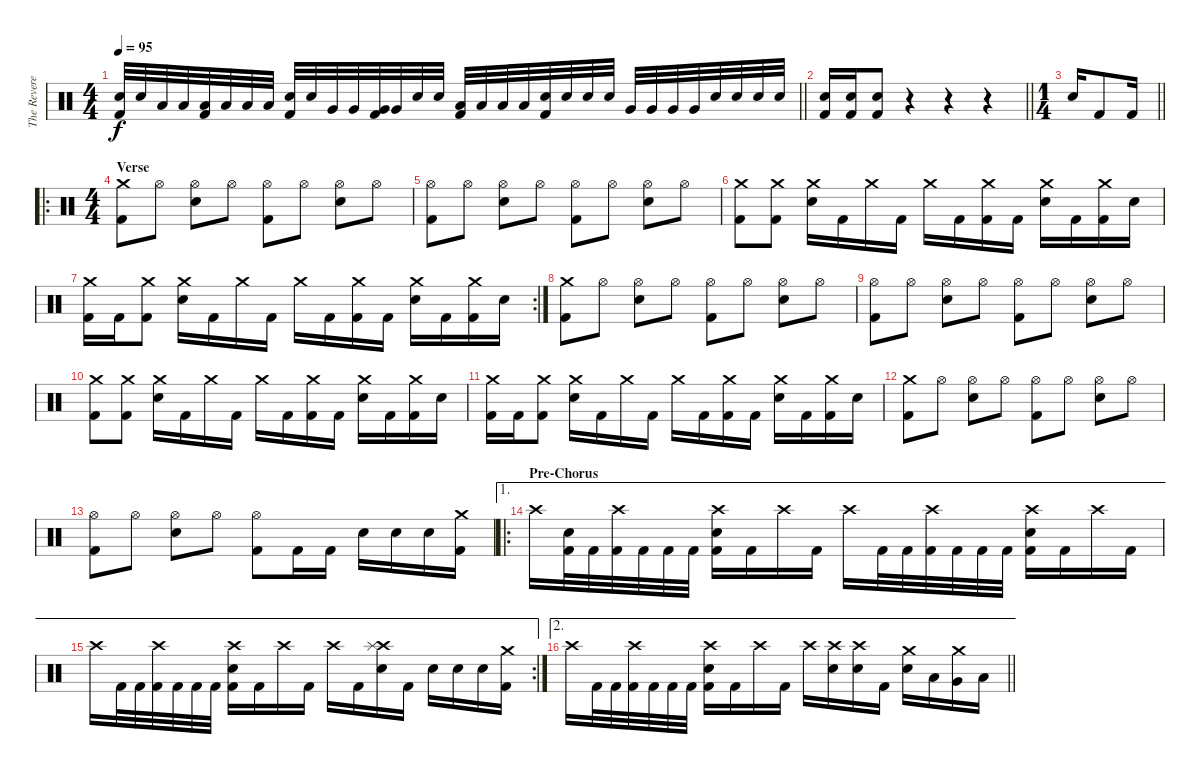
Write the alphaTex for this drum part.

\track ("The Reverend" "The Revere") {instrument percussion}
\staff {score}
\articulation defaults
\ts (4 4)
\tempo 95
\clef neutral
\barLineRight lightlight
\ks c
("Electric Snare (hit)" "Kick (hit) 2").32{dy f} "Electric Snare (hit)".32 "Low Tom (hit)".32 "Low Tom (hit)".32 ("Low Tom (hit)" "Kick (hit) 2").32 "Low Tom (hit)".32 "Low Tom (hit)".32 "Low Tom (hit)".32 ("Electric Snare (hit)" "Kick (hit) 2").32 "Electric Snare (hit)".32 "Very Low Tom (hit)".32 "Very Low Tom (hit)".32 ("Very Low Tom (hit)" "Kick (hit) 2").32 "Very Low Tom (hit)".32 "Electric Snare (hit)".32 "Electric Snare (hit)".32 ("Low Tom (hit)" "Kick (hit) 2").32 "Low Tom (hit)".32 "Low Tom (hit)".32 "Low Tom (hit)".32 ("Electric Snare (hit)" "Kick (hit) 2").32 "Electric Snare (hit)".32 "Electric Snare (hit)".32 "Electric Snare (hit)".32 "Very Low Tom (hit)".32 "Very Low Tom (hit)".32 "Very Low Tom (hit)".32 "Very Low Tom (hit)".32 "Electric Snare (hit)".32 "Electric Snare (hit)".32 "Electric Snare (hit)".32 "Electric Snare (hit)".32 |
\barLineRight lightlight
("Electric Snare (hit)" "Kick (hit) 2").16 ("Electric Snare (hit)" "Kick (hit) 2").16 ("Electric Snare (hit)" "Kick (hit) 2").8 r.4 r.4 r.4 |
\ts (1 4)
\barLineRight lightlight "Electric Snare (hit)".16 "Kick (hit) 2".8 "Kick (hit) 2".16
|
\ro
\ts (4 4)
\section ("" "Verse")
("Crash medium (hit)" "Kick (hit) 2").8 "Hi-Hat (open)".8 ("Hi-Hat (open)" "Electric Snare (hit)").8 "Hi-Hat (open)".8 ("Hi-Hat (open)" "Kick (hit) 2").8 "Hi-Hat (open)".8 ("Hi-Hat (open)" "Electric Snare (hit)").8 "Hi-Hat (open)".8 |
("Hi-Hat (open)" "Kick (hit) 2").8 "Hi-Hat (open)".8 ("Hi-Hat (open)" "Electric Snare (hit)").8 "Hi-Hat (open)".8 ("Hi-Hat (open)" "Kick (hit) 2").8 "Hi-Hat (open)".8 ("Hi-Hat (open)" "Electric Snare (hit)").8 "Hi-Hat (open)".8 |
("Crash medium (hit)" "Kick (hit) 2").8 ("Crash medium (hit)" "Kick (hit) 2").8 ("Crash medium (hit)" "Electric Snare (hit)").16 "Kick (hit) 2".16 "Crash medium (hit)".16 "Kick (hit) 2".16 "Crash medium (hit)".16 "Kick (hit) 2".16 ("Crash medium (hit)" "Kick (hit) 2").16 "Kick (hit) 2".16 ("Crash medium (hit)" "Electric Snare (hit)").16 "Kick (hit) 2".16 ("Crash medium (hit)" "Kick (hit) 2").16 "Electric Snare (hit)".16 |
\rc 2
("Crash medium (hit)" "Kick (hit) 2").16 "Kick (hit) 2".16 ("Crash medium (hit)" "Kick (hit) 2").8 ("Crash medium (hit)" "Electric Snare (hit)").16 "Kick (hit) 2".16 "Crash medium (hit)".16 "Kick (hit) 2".16 "Crash medium (hit)".16 "Kick (hit) 2".16 ("Crash medium (hit)" "Kick (hit) 2").16 "Kick (hit) 2".16 ("Crash medium (hit)" "Electric Snare (hit)").16 "Kick (hit) 2".16 ("Crash medium (hit)" "Kick (hit) 2").16 "Electric Snare (hit)".16 |
("Crash medium (hit)" "Kick (hit) 2").8 "Hi-Hat (open)".8 ("Hi-Hat (open)" "Electric Snare (hit)").8 "Hi-Hat (open)".8 ("Hi-Hat (open)" "Kick (hit) 2").8 "Hi-Hat (open)".8 ("Hi-Hat (open)" "Electric Snare (hit)").8 "Hi-Hat (open)".8 |
("Hi-Hat (open)" "Kick (hit) 2").8 "Hi-Hat (open)".8 ("Hi-Hat (open)" "Electric Snare (hit)").8 "Hi-Hat (open)".8 ("Hi-Hat (open)" "Kick (hit) 2").8 "Hi-Hat (open)".8 ("Hi-Hat (open)" "Electric Snare (hit)").8 "Hi-Hat (open)".8 |
("Crash medium (hit)" "Kick (hit) 2").8 ("Crash medium (hit)" "Kick (hit) 2").8 ("Crash medium (hit)" "Electric Snare (hit)").16 "Kick (hit) 2".16 "Crash medium (hit)".16 "Kick (hit) 2".16 "Crash medium (hit)".16 "Kick (hit) 2".16 ("Crash medium (hit)" "Kick (hit) 2").16 "Kick (hit) 2".16 ("Crash medium (hit)" "Electric Snare (hit)").16 "Kick (hit) 2".16 ("Crash medium (hit)" "Kick (hit) 2").16 "Electric Snare (hit)".16 |
("Crash medium (hit)" "Kick (hit) 2").16 "Kick (hit) 2".16 ("Crash medium (hit)" "Kick (hit) 2").8 ("Crash medium (hit)" "Electric Snare (hit)").16 "Kick (hit) 2".16 "Crash medium (hit)".16 "Kick (hit) 2".16 "Crash medium (hit)".16 "Kick (hit) 2".16 ("Crash medium (hit)" "Kick (hit) 2").16 "Kick (hit) 2".16 ("Crash medium (hit)" "Electric Snare (hit)").16 "Kick (hit) 2".16 ("Crash medium (hit)" "Kick (hit) 2").16 "Electric Snare (hit)".16 |
("Crash medium (hit)" "Kick (hit) 2").8 "Hi-Hat (open)".8 ("Hi-Hat (open)" "Electric Snare (hit)").8 "Hi-Hat (open)".8 ("Hi-Hat (open)" "Kick (hit) 2").8 "Hi-Hat (open)".8 ("Hi-Hat (open)" "Electric Snare (hit)").8 "Hi-Hat (open)".8 |
("Hi-Hat (open)" "Kick (hit) 2").8 "Hi-Hat (open)".8 ("Hi-Hat (open)" "Electric Snare (hit)").8 "Hi-Hat (open)".8 ("Hi-Hat (open)" "Kick (hit) 2").8 "Kick (hit) 2".16 "Kick (hit) 2".16 "Electric Snare (hit)".16 "Electric Snare (hit)".16 "Electric Snare (hit)".16 ("Crash medium (hit)" "Kick (hit) 2").16 |
\ae 1
\ro
\section ("" "Pre-Chorus")
"Crash high (hit)".16 ("Electric Snare (hit)" "Kick (hit) 2").32 "Kick (hit) 2".32 ("Crash high (hit)" "Kick (hit) 2").32 "Kick (hit) 2".32 "Kick (hit) 2".32 "Kick (hit) 2".32 ("Crash high (hit)" "Electric Snare (hit)" "Kick (hit) 2").16 "Kick (hit) 2".16 "Crash high (hit)".16 "Kick (hit) 2".16 "Crash high (hit)".16 "Kick (hit) 2".32 "Kick (hit) 2".32 ("Crash high (hit)" "Kick (hit) 2").32 "Kick (hit) 2".32 "Kick (hit) 2".32 "Kick (hit) 2".32 ("Crash high (hit)" "Electric Snare (hit)" "Kick (hit) 2").16 "Kick (hit) 2".16 "Crash high (hit)".16 "Kick (hit) 2".16 |
\ae 1
\rc 2 "Crash high (hit)".16 "Kick (hit) 2".32 "Kick (hit) 2".32
("Crash high (hit)" "Kick (hit) 2").32 "Kick (hit) 2".32 "Kick (hit) 2".32 "Kick (hit) 2".32 ("Crash high (hit)" "Electric Snare (hit)" "Kick (hit) 2").16 "Kick (hit) 2".16 "Crash high (hit)".16 "Kick (hit) 2".16 "Crash high (hit)".16 "Kick (hit) 2".16 ("Crash high (hit)" "Splash (hit)" "Electric Snare (hit)").16 "Kick (hit) 2".16 "Electric Snare (hit)".16 "Electric Snare (hit)".16 "Electric Snare (hit)".16 ("Crash medium (hit)" "Kick (hit) 2").16 |
\ae 2
\barLineRight lightlight "Crash high (hit)".16 "Kick (hit) 2".32 "Kick (hit) 2".32
("Crash high (hit)" "Kick (hit) 2").32 "Kick (hit) 2".32 "Kick (hit) 2".32 "Kick (hit) 2".32 ("Crash high (hit)" "Electric Snare (hit)" "Kick (hit) 2").16 "Kick (hit) 2".16 "Crash high (hit)".16 "Kick (hit) 2".16 "Crash high (hit)".16 ("Crash high (hit)" "Electric Snare (hit)").16 ("Crash high (hit)" "Electric Snare (hit)").16 "Kick (hit) 2".16 ("Crash medium (hit)" "Electric Snare (hit)").16 "Low Tom (hit)".16 ("Crash medium (hit)" "Very Low Tom (hit)").16 "Low Floor Tom (hit)".16
